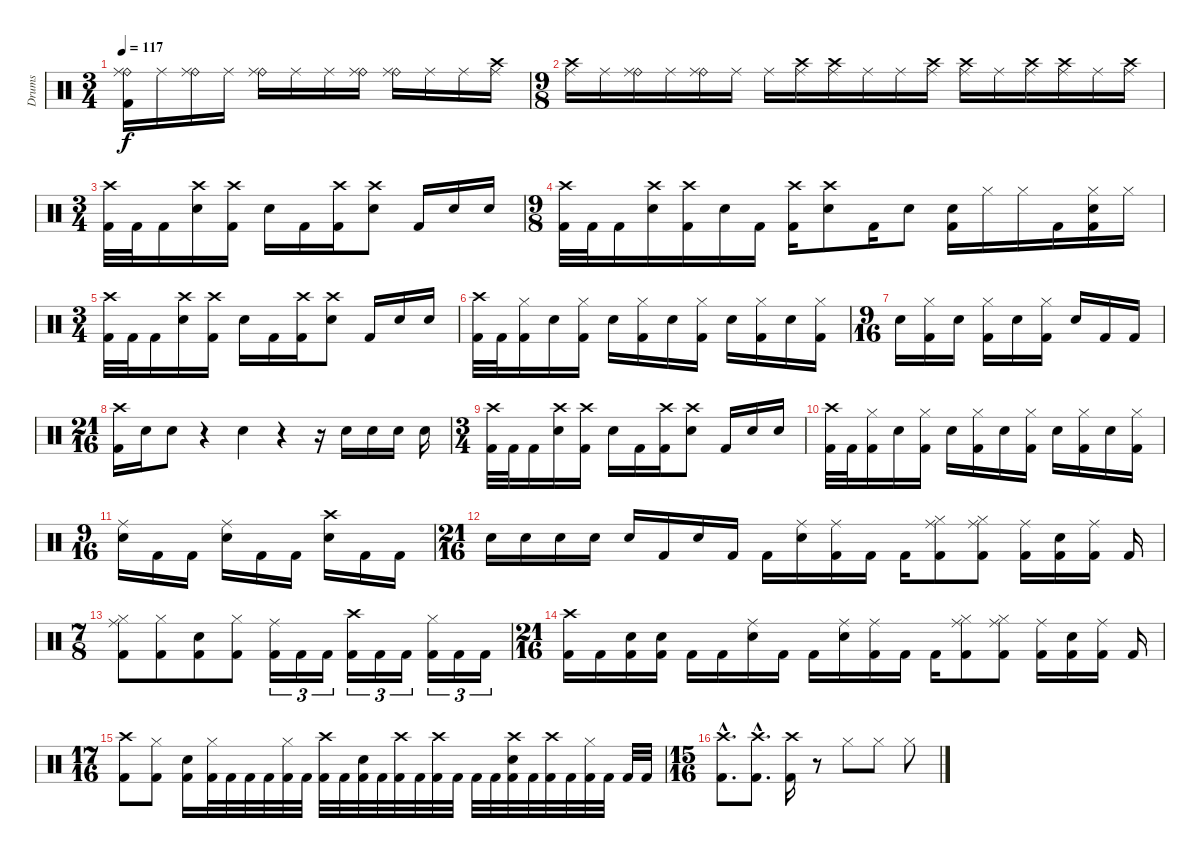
\track ("Drums" "Drums") {instrument percussion}
\staff {score}
\articulation defaults
\ts (3 4)
\tempo 117
\clef neutral
\ks c
("Ride (bell)" "Ride (middle)" "Kick (hit) 2").16{dy f} "Ride (middle)".16 ("Ride (bell)" "Ride (middle)").16 "Ride (middle)".16 ("Ride (bell)" "Ride (middle)").16 "Ride (middle)".16 "Ride (middle)".16 ("Ride (bell)" "Ride (middle)").16 ("Ride (bell)" "Ride (middle)").16 "Ride (middle)".16 "Ride (middle)".16 ("Crash high (hit)" "Ride (middle)").16 |
\ts (9 8)
("Crash high (hit)" "Ride (middle)").16 "Ride (middle)".16 ("Ride (bell)" "Ride (middle)").16 "Ride (middle)".16 ("Ride (bell)" "Ride (middle)").16 "Ride (middle)".16 "Ride (middle)".16 ("Crash high (hit)" "Ride (middle)").16 ("Crash high (hit)" "Ride (middle)").16 "Ride (middle)".16 "Ride (middle)".16 ("Crash high (hit)" "Ride (middle)").16 ("Crash high (hit)" "Ride (middle)").16 "Ride (middle)".16 ("Crash high (hit)" "Ride (middle)").16 ("Crash high (hit)" "Ride (middle)").16 "Ride (middle)".16 ("Crash high (hit)" "Ride (middle)").16 |
\ts (3 4)
("Crash high (hit)" "Kick (hit) 2").32 "Kick (hit) 2".32 "Kick (hit) 2".16 ("Crash high (hit)" "Electric Snare (hit)").16 ("Crash high (hit)" "Kick (hit) 2").16 "Electric Snare (hit)".16 "Kick (hit) 2".16 ("Crash high (hit)" "Kick (hit) 2").16 ("Crash high (hit)" "Electric Snare (hit)").8 "Kick (hit) 2".16 "Electric Snare (hit)".16 "Electric Snare (hit)".16 |
\ts (9 8)
("Crash high (hit)" "Kick (hit) 2").32 "Kick (hit) 2".32 "Kick (hit) 2".16 ("Crash high (hit)" "Electric Snare (hit)").16 ("Crash high (hit)" "Kick (hit) 2").16 "Electric Snare (hit)".16 "Kick (hit) 2".16 ("Crash high (hit)" "Kick (hit) 2").16 ("Crash high (hit)" "Electric Snare (hit)").8 "Kick (hit) 2".16 "Electric Snare (hit)".8 ("Electric Snare (hit)" "Kick (hit) 2").16 "Hi-Hat (closed)".16 "Hi-Hat (closed)".16 "Kick (hit) 2".16 ("Hi-Hat (closed)" "Electric Snare (hit)" "Kick (hit) 2").16 "Hi-Hat (closed)".16 |
\ts (3 4)
("Crash high (hit)" "Kick (hit) 2").32 "Kick (hit) 2".32 "Kick (hit) 2".16 ("Crash high (hit)" "Electric Snare (hit)").16 ("Crash high (hit)" "Kick (hit) 2").16 "Electric Snare (hit)".16 "Kick (hit) 2".16 ("Crash high (hit)" "Kick (hit) 2").16 ("Crash high (hit)" "Electric Snare (hit)").8 "Kick (hit) 2".16 "Electric Snare (hit)".16 "Electric Snare (hit)".16 |
("Crash high (hit)" "Kick (hit) 2").32 "Kick (hit) 2".32 ("Hi-Hat (closed)" "Kick (hit) 2").16 "Electric Snare (hit)".16 ("Hi-Hat (closed)" "Kick (hit) 2").16 "Electric Snare (hit)".16 ("Hi-Hat (closed)" "Kick (hit) 2").16 "Electric Snare (hit)".16 ("Hi-Hat (closed)" "Kick (hit) 2").16 "Electric Snare (hit)".16 ("Hi-Hat (closed)" "Kick (hit) 2").16 "Electric Snare (hit)".16 ("Hi-Hat (closed)" "Kick (hit) 2").16 |
\ts (9 16)
"Electric Snare (hit)".16 ("Hi-Hat (closed)" "Kick (hit) 2").16 "Electric Snare (hit)".16 ("Hi-Hat (closed)" "Kick (hit) 2").16 "Electric Snare (hit)".16 ("Hi-Hat (closed)" "Kick (hit) 2").16 "Electric Snare (hit)".16 "Kick (hit) 2".16 "Kick (hit) 2".16 |
\ts (21 16)
("Crash high (hit)" "Kick (hit) 2").16 "Electric Snare (hit)".16 "Electric Snare (hit)".8 r.4 "Snare (hit)".4 r.4 r.16 "Electric Snare (hit)".16 "Electric Snare (hit)".16 "Electric Snare (hit)".16 "Electric Snare (hit)".16 |
\ts (3 4)
("Crash high (hit)" "Kick (hit) 2").32 "Kick (hit) 2".32 "Kick (hit) 2".16 ("Crash high (hit)" "Electric Snare (hit)").16 ("Crash high (hit)" "Kick (hit) 2").16 "Electric Snare (hit)".16 "Kick (hit) 2".16 ("Crash high (hit)" "Kick (hit) 2").16 ("Crash high (hit)" "Electric Snare (hit)").8 "Kick (hit) 2".16 "Electric Snare (hit)".16 "Electric Snare (hit)".16 |
("Crash high (hit)" "Kick (hit) 2").32 "Kick (hit) 2".32 ("Hi-Hat (closed)" "Kick (hit) 2").16 "Electric Snare (hit)".16 ("Hi-Hat (closed)" "Kick (hit) 2").16 "Electric Snare (hit)".16 ("Hi-Hat (closed)" "Kick (hit) 2").16 "Electric Snare (hit)".16 ("Hi-Hat (closed)" "Kick (hit) 2").16 "Electric Snare (hit)".16 ("Hi-Hat (closed)" "Kick (hit) 2").16 "Electric Snare (hit)".16 ("Hi-Hat (closed)" "Kick (hit) 2").16 |
\ts (9 16)
("Ride (middle)" "Electric Snare (hit)").16 "Kick (hit) 2".16 "Kick (hit) 2".16 ("Ride (middle)" "Electric Snare (hit)").16 "Kick (hit) 2".16 "Kick (hit) 2".16 ("Crash high (hit)" "Electric Snare (hit)").16 "Kick (hit) 2".16 "Kick (hit) 2".16 |
\ts (21 16)
"Electric Snare (hit)".16 "Electric Snare (hit)".16 "Electric Snare (hit)".16 "Electric Snare (hit)".16 "Electric Snare (hit)".16 "Kick (hit) 2".16 "Electric Snare (hit)".16 "Kick (hit) 2".16 "Kick (hit) 2".16 ("Ride (middle)" "Electric Snare (hit)").16 ("Ride (middle)" "Kick (hit) 2").16 "Kick (hit) 2".16 "Kick (hit) 2".16 ("Ride (middle)" "Hi-Hat (closed)" "Kick (hit) 2").8 ("Ride (middle)" "Hi-Hat (closed)" "Kick (hit) 2").8 ("Ride (middle)" "Kick (hit) 2").16 ("Electric Snare (hit)" "Kick (hit) 2").16 ("Ride (middle)" "Kick (hit) 2").16 "Kick (hit) 2".16 |
\ts (7 8)
("Ride (middle)" "Hi-Hat (closed)" "Kick (hit) 2").8 ("Hi-Hat (closed)" "Kick (hit) 2").8 ("Electric Snare (hit)" "Kick (hit) 2").8 ("Hi-Hat (closed)" "Kick (hit) 2").8 ("Ride (middle)" "Kick (hit) 2").16{tu (3 2)} "Kick (hit) 2".16{tu (3 2)} "Kick (hit) 2".16{tu (3 2)} ("Crash high (hit)" "Kick (hit) 2").16{tu (3 2)} "Kick (hit) 2".16{tu (3 2)} "Kick (hit) 2".16{tu (3 2)} ("Hi-Hat (closed)" "Kick (hit) 2").16{tu (3 2)} "Kick (hit) 2".16{tu (3 2)} "Kick (hit) 2".16{tu (3 2)} |
\ts (21 16)
("Crash high (hit)" "Kick (hit) 2").16 "Kick (hit) 2".16 ("Electric Snare (hit)" "Kick (hit) 2").16 ("Electric Snare (hit)" "Kick (hit) 2").16 "Kick (hit) 2".16 "Kick (hit) 2".16 ("Ride (middle)" "Electric Snare (hit)").16 "Kick (hit) 2".16 "Kick (hit) 2".16 ("Ride (middle)" "Electric Snare (hit)").16 ("Ride (middle)" "Kick (hit) 2").16 "Kick (hit) 2".16 "Kick (hit) 2".16 ("Ride (middle)" "Hi-Hat (closed)" "Kick (hit) 2").8 ("Ride (middle)" "Hi-Hat (closed)" "Kick (hit) 2").8 ("Ride (middle)" "Kick (hit) 2").16 ("Electric Snare (hit)" "Kick (hit) 2").16 ("Ride (middle)" "Kick (hit) 2").16 "Kick (hit) 2".16 |
\ts (17 16)
("Crash high (hit)" "Kick (hit) 2").8 ("Hi-Hat (closed)" "Kick (hit) 2").8 ("Electric Snare (hit)" "Kick (hit) 2").16 ("Hi-Hat (closed)" "Kick (hit) 2").32 "Kick (hit) 2".32 "Kick (hit) 2".32 "Kick (hit) 2".32 ("Hi-Hat (closed)" "Kick (hit) 2").32 "Kick (hit) 2".32 ("Crash high (hit)" "Kick (hit) 2").32 "Kick (hit) 2".32 ("Electric Snare (hit)" "Kick (hit) 2").32 "Kick (hit) 2".32 ("Crash high (hit)" "Kick (hit) 2").32 "Kick (hit) 2".32 ("Crash high (hit)" "Kick (hit) 2").32 "Kick (hit) 2".32 "Kick (hit) 2".32 "Kick (hit) 2".32 ("Crash high (hit)" "Electric Snare (hit)" "Kick (hit) 2").32 "Kick (hit) 2".32 ("Crash high (hit)" "Kick (hit) 2").32 "Kick (hit) 2".32 ("Hi-Hat (closed)" "Kick (hit) 2").32 "Kick (hit) 2".32 "Kick (hit) 2".32 "Kick (hit) 2".32 |
\ts (15 16)
("Crash high (hit)"{hac} "Kick (hit) 2"{hac}).8{d} ("Crash high (hit)"{hac} "Kick (hit) 2"{hac}).8{d} ("Crash high (hit)" "Kick (hit) 2").16 r.8 "Hi-Hat (closed)".8 "Hi-Hat (closed)".8 "Hi-Hat (closed)".8
